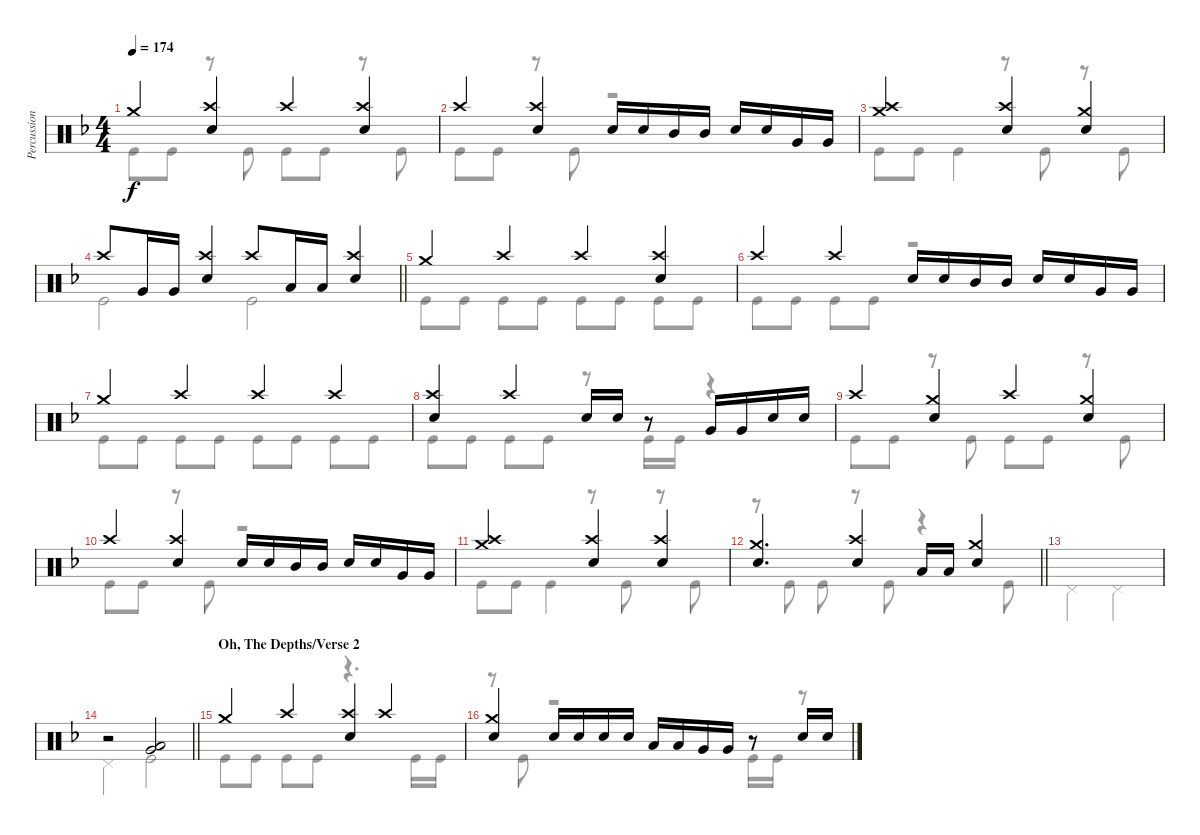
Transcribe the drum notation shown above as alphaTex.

\track ("Percussion" "Percussion") {instrument percussion}
\staff {score}
\articulation defaults
\voice
\ts (4 4)
\tempo 174
\clef neutral
\ks dminor "Crash medium (hit)".4{dy f}
("Crash high (hit)" "Electric Snare (hit)").4 "Crash high (hit)".4 ("Crash high (hit)" "Electric Snare (hit)").4 |
"Crash high (hit)".4 ("Crash high (hit)" "Electric Snare (hit)").4 "Electric Snare (hit)".16 "Electric Snare (hit)".16 "Mid Tom (hit)".16 "Mid Tom (hit)".16 "Electric Snare (hit)".16 "Electric Snare (hit)".16 "Very Low Tom (hit)".16 "Very Low Tom (hit)".16 |
("Crash medium (hit)" "Crash high (hit)").2 ("Crash high (hit)" "Electric Snare (hit)").4 ("Crash medium (hit)" "Electric Snare (hit)").4 |
\barLineRight lightlight "Crash high (hit)".8 "Very Low Tom (hit)".16 "Very Low Tom (hit)".16
("Crash high (hit)" "Electric Snare (hit)").4 "Crash high (hit)".8 "Low Tom (hit)".16 "Low Tom (hit)".16 ("Crash high (hit)" "Electric Snare (hit)").4 |
"Crash medium (hit)".4 "Crash high (hit)".4 "Crash high (hit)".4 ("Crash high (hit)" "Electric Snare (hit)").4 |
"Crash high (hit)".4 "Crash high (hit)".4 "Electric Snare (hit)".16 "Electric Snare (hit)".16 "Mid Tom (hit)".16 "Mid Tom (hit)".16 "Electric Snare (hit)".16 "Electric Snare (hit)".16 "Very Low Tom (hit)".16 "Very Low Tom (hit)".16 |
"Crash medium (hit)".4 "Crash high (hit)".4 "Crash high (hit)".4 "Crash high (hit)".4 |
("Crash high (hit)" "Electric Snare (hit)").4 "Crash high (hit)".4 "Electric Snare (hit)".16 "Electric Snare (hit)".16 r.8 "Very Low Tom (hit)".16 "Very Low Tom (hit)".16 "Electric Snare (hit)".16 "Electric Snare (hit)".16 |
"Crash high (hit)".4 ("Crash medium (hit)" "Electric Snare (hit)").4 "Crash high (hit)".4 ("Crash medium (hit)" "Electric Snare (hit)").4 |
"Crash high (hit)".4 ("Crash high (hit)" "Electric Snare (hit)").4 "Electric Snare (hit)".16 "Electric Snare (hit)".16 "Mid Tom (hit)".16 "Mid Tom (hit)".16 "Electric Snare (hit)".16 "Electric Snare (hit)".16 "Very Low Tom (hit)".16 "Very Low Tom (hit)".16 |
("Crash medium (hit)" "Crash high (hit)").2 ("Crash high (hit)" "Electric Snare (hit)").4 ("Crash high (hit)" "Electric Snare (hit)").4 |
\barLineRight lightlight
("Crash medium (hit)" "Electric Snare (hit)").4{d} ("Crash high (hit)" "Electric Snare (hit)").4 "Low Tom (hit)".16 "Low Tom (hit)".16 ("Crash medium (hit)" "Electric Snare (hit)").4 |
\section ("" "")
|
\barLineRight lightlight
r.2 ("Low Tom (hit)" "Very Low Tom (hit)").2 |
\section ("" "Oh, The Depths/Verse 2")
"Crash medium (hit)".4 "Crash high (hit)".4 ("Crash high (hit)" "Electric Snare (hit)").4 "Crash high (hit)".4 |
("Crash medium (hit)" "Electric Snare (hit)").4 "Electric Snare (hit)".16 "Electric Snare (hit)".16 "Electric Snare (hit)".16 "Electric Snare (hit)".16 "Low Tom (hit)".16 "Low Tom (hit)".16 "Very Low Tom (hit)".16 "Very Low Tom (hit)".16 r.8 "Electric Snare (hit)".16 "Electric Snare (hit)".16
\voice
\clef neutral
\ottava regular
\simile none
\ks dminor "Kick (hit)".8{dy f} "Kick (hit)".8
r.8 "Kick (hit)".8 "Kick (hit)".8 "Kick (hit)".8 r.8 "Kick (hit)".8 |
"Kick (hit)".8 "Kick (hit)".8 r.8 "Kick (hit)".8 r.2 |
"Kick (hit)".8 "Kick (hit)".8 "Kick (hit)".4 r.8 "Kick (hit)".8 r.8 "Kick (hit)".8 |
\barLineRight lightlight "Kick (hit)".2 "Kick (hit)".2
|
"Kick (hit)".8 "Kick (hit)".8 "Kick (hit)".8 "Kick (hit)".8 "Kick (hit)".8 "Kick (hit)".8 "Kick (hit)".8 "Kick (hit)".8 |
"Kick (hit)".8 "Kick (hit)".8 "Kick (hit)".8 "Kick (hit)".8 r.2 |
"Kick (hit)".8 "Kick (hit)".8 "Kick (hit)".8 "Kick (hit)".8 "Kick (hit)".8 "Kick (hit)".8 "Kick (hit)".8 "Kick (hit)".8 |
"Kick (hit)".8 "Kick (hit)".8 "Kick (hit)".8 "Kick (hit)".8 r.8 "Kick (hit)".16 "Kick (hit)".16 r.4 |
"Kick (hit)".8 "Kick (hit)".8 r.8 "Kick (hit)".8 "Kick (hit)".8 "Kick (hit)".8 r.8 "Kick (hit)".8 |
"Kick (hit)".8 "Kick (hit)".8 r.8 "Kick (hit)".8 r.2 |
"Kick (hit)".8 "Kick (hit)".8 "Kick (hit)".4 r.8 "Kick (hit)".8 r.8 "Kick (hit)".8 |
\barLineRight lightlight
r.8 "Kick (hit)".8 "Kick (hit)".8 r.8 "Kick (hit)".8 r.4 "Kick (hit)".8 |
"Pedal Hi-Hat (hit)".2 "Pedal Hi-Hat (hit)".2 |
\barLineRight lightlight "Pedal Hi-Hat (hit)".2 "Kick (hit)".2
|
"Kick (hit)".8 "Kick (hit)".8 "Kick (hit)".8 "Kick (hit)".8 r.4{d} "Kick (hit)".16 "Kick (hit)".16 |
r.8 "Kick (hit)".8 r.2 "Kick (hit)".16 "Kick (hit)".16 r.8
